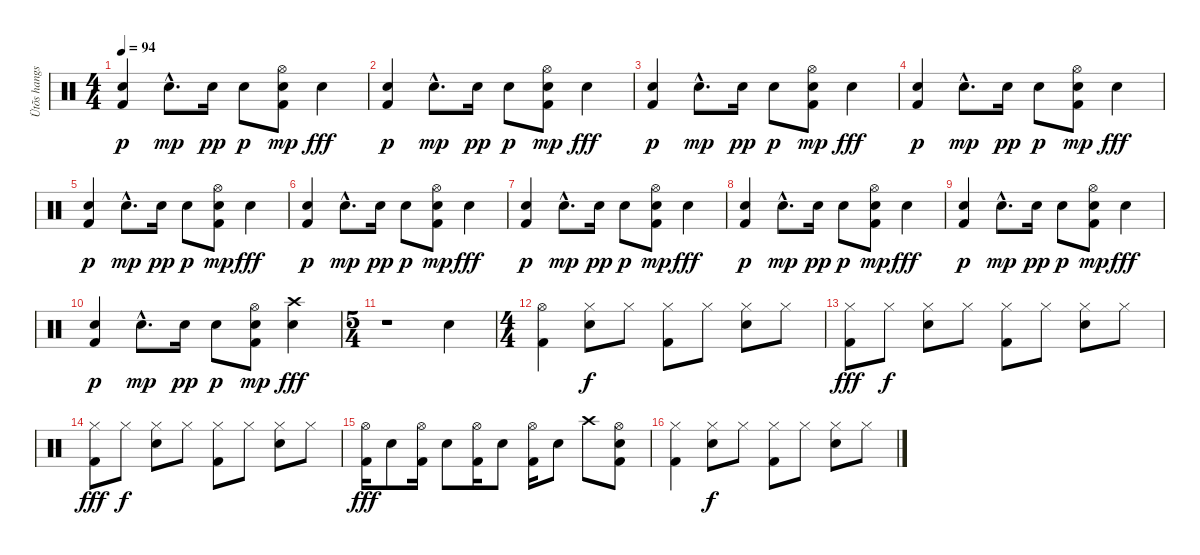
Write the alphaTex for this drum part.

\track ("Ütõs hangszer" "Ütõs hangs") {instrument percussion}
\staff {score}
\articulation defaults
\ts (4 4)
\tempo 94
\clef neutral
\ks c
("Electric Snare (hit)" "Kick (hit) 2").4{dy p} "Electric Snare (hit)"{hac}.8{d dy mp} "Electric Snare (hit)".16{dy pp} "Electric Snare (hit)".8{dy p} ("Electric Snare (hit)" "Kick (hit) 2" "Hi-Hat (open)").8{dy mp} "Electric Snare (hit)".4{dy fff} |
("Electric Snare (hit)" "Kick (hit) 2").4{dy p} "Electric Snare (hit)"{hac}.8{d dy mp} "Electric Snare (hit)".16{dy pp} "Electric Snare (hit)".8{dy p} ("Electric Snare (hit)" "Kick (hit) 2" "Hi-Hat (open)").8{dy mp} "Electric Snare (hit)".4{dy fff} |
("Electric Snare (hit)" "Kick (hit) 2").4{dy p} "Electric Snare (hit)"{hac}.8{d dy mp} "Electric Snare (hit)".16{dy pp} "Electric Snare (hit)".8{dy p} ("Electric Snare (hit)" "Kick (hit) 2" "Hi-Hat (open)").8{dy mp} "Electric Snare (hit)".4{dy fff} |
("Electric Snare (hit)" "Kick (hit) 2").4{dy p} "Electric Snare (hit)"{hac}.8{d dy mp} "Electric Snare (hit)".16{dy pp} "Electric Snare (hit)".8{dy p} ("Electric Snare (hit)" "Kick (hit) 2" "Hi-Hat (open)").8{dy mp} "Electric Snare (hit)".4{dy fff} |
("Electric Snare (hit)" "Kick (hit) 2").4{dy p} "Electric Snare (hit)"{hac}.8{d dy mp} "Electric Snare (hit)".16{dy pp} "Electric Snare (hit)".8{dy p} ("Electric Snare (hit)" "Kick (hit) 2" "Hi-Hat (open)").8{dy mp} "Electric Snare (hit)".4{dy fff} |
("Electric Snare (hit)" "Kick (hit) 2").4{dy p} "Electric Snare (hit)"{hac}.8{d dy mp} "Electric Snare (hit)".16{dy pp} "Electric Snare (hit)".8{dy p} ("Electric Snare (hit)" "Kick (hit) 2" "Hi-Hat (open)").8{dy mp} "Electric Snare (hit)".4{dy fff} |
("Electric Snare (hit)" "Kick (hit) 2").4{dy p} "Electric Snare (hit)"{hac}.8{d dy mp} "Electric Snare (hit)".16{dy pp} "Electric Snare (hit)".8{dy p} ("Electric Snare (hit)" "Kick (hit) 2" "Hi-Hat (open)").8{dy mp} "Electric Snare (hit)".4{dy fff} |
("Electric Snare (hit)" "Kick (hit) 2").4{dy p} "Electric Snare (hit)"{hac}.8{d dy mp} "Electric Snare (hit)".16{dy pp} "Electric Snare (hit)".8{dy p} ("Electric Snare (hit)" "Kick (hit) 2" "Hi-Hat (open)").8{dy mp} "Electric Snare (hit)".4{dy fff} |
("Electric Snare (hit)" "Kick (hit) 2").4{dy p} "Electric Snare (hit)"{hac}.8{d dy mp} "Electric Snare (hit)".16{dy pp} "Electric Snare (hit)".8{dy p} ("Electric Snare (hit)" "Kick (hit) 2" "Hi-Hat (open)").8{dy mp} "Electric Snare (hit)".4{dy fff} |
("Electric Snare (hit)" "Kick (hit) 2").4{dy p} "Electric Snare (hit)"{hac}.8{d dy mp} "Electric Snare (hit)".16{dy pp} "Electric Snare (hit)".8{dy p} ("Electric Snare (hit)" "Kick (hit) 2" "Hi-Hat (open)").8{dy mp} ("Electric Snare (hit)" "Crash high (hit)").4{dy fff} |
\ts (5 4)
r.1 "Electric Snare (hit)".4 |
\ts (4 4)
("Kick (hit) 2" "Hi-Hat (open)").4 ("Electric Snare (hit)" "Hi-Hat (closed)").8{dy f} "Hi-Hat (closed)".8 ("Kick (hit) 2" "Hi-Hat (closed)").8 "Hi-Hat (closed)".8 ("Electric Snare (hit)" "Hi-Hat (closed)").8 "Hi-Hat (closed)".8 |
("Kick (hit) 2" "Hi-Hat (closed)").8{dy fff} "Hi-Hat (closed)".8{dy f} ("Electric Snare (hit)" "Hi-Hat (closed)").8 "Hi-Hat (closed)".8 ("Kick (hit) 2" "Hi-Hat (closed)").8 "Hi-Hat (closed)".8 ("Electric Snare (hit)" "Hi-Hat (closed)").8 "Hi-Hat (closed)".8 |
("Kick (hit) 2" "Hi-Hat (closed)").8{dy fff} "Hi-Hat (closed)".8{dy f} ("Electric Snare (hit)" "Hi-Hat (closed)").8 "Hi-Hat (closed)".8 ("Kick (hit) 2" "Hi-Hat (closed)").8 "Hi-Hat (closed)".8 ("Electric Snare (hit)" "Hi-Hat (closed)").8 "Hi-Hat (closed)".8 |
("Kick (hit) 2" "Hi-Hat (open)").16{dy fff} "Electric Snare (hit)".8 ("Kick (hit) 2" "Hi-Hat (open)").16 "Electric Snare (hit)".8 ("Kick (hit) 2" "Hi-Hat (open)").16 "Electric Snare (hit)".8 ("Kick (hit) 2" "Hi-Hat (open)").16 "Electric Snare (hit)".8 "Crash high (hit)".8 ("Electric Snare (hit)" "Kick (hit) 2" "Hi-Hat (open)").8 |
("Kick (hit) 2" "Hi-Hat (closed)").4 ("Electric Snare (hit)" "Hi-Hat (closed)").8{dy f} "Hi-Hat (closed)".8 ("Kick (hit) 2" "Hi-Hat (closed)").8 "Hi-Hat (closed)".8 ("Electric Snare (hit)" "Hi-Hat (closed)").8 "Hi-Hat (closed)".8
